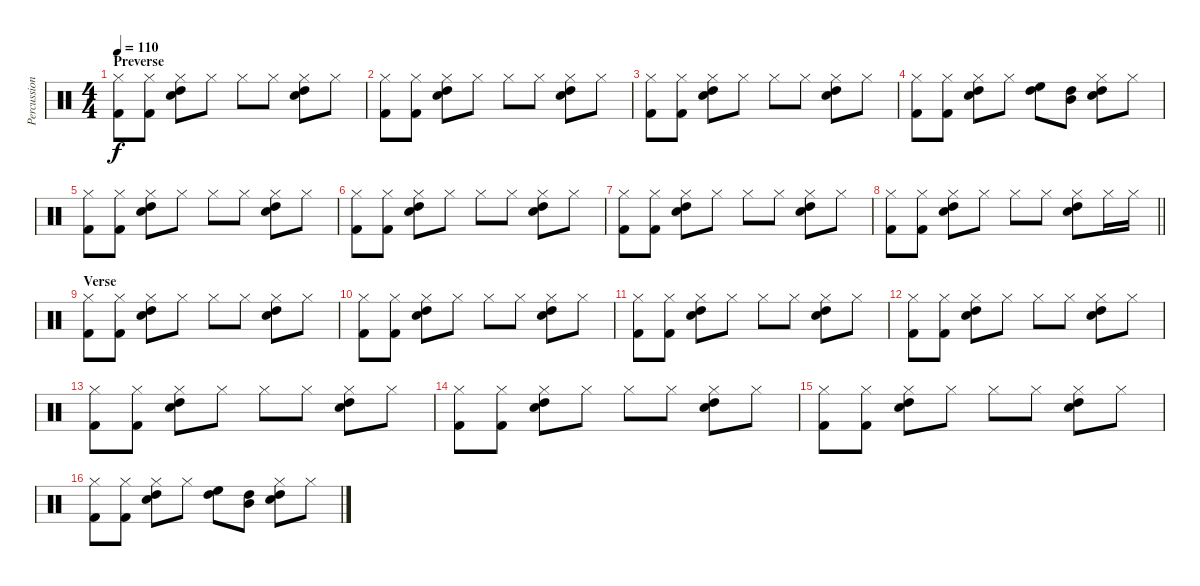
\track ("Percussion" "Percussion") {instrument percussion}
\staff {score}
\articulation defaults
\ts (4 4)
\section ("" "Preverse")
\tempo 110
\clef neutral
\ks c
("Hi-Hat (closed)" "Kick (hit) 2").8{dy f} ("Hi-Hat (closed)" "Kick (hit) 2").8 ("Hi-Hat (closed)" "High Tom (hit)" "Snare (hit) 2").8 "Hi-Hat (closed)".8 "Hi-Hat (closed)".8 "Hi-Hat (closed)".8 ("Hi-Hat (closed)" "High Tom (hit)" "Snare (hit) 2").8 "Hi-Hat (closed)".8 |
("Hi-Hat (closed)" "Kick (hit) 2").8 ("Hi-Hat (closed)" "Kick (hit) 2").8 ("Hi-Hat (closed)" "High Tom (hit)" "Snare (hit) 2").8 "Hi-Hat (closed)".8 "Hi-Hat (closed)".8 "Hi-Hat (closed)".8 ("Hi-Hat (closed)" "High Tom (hit)" "Snare (hit) 2").8 "Hi-Hat (closed)".8 |
("Hi-Hat (closed)" "Kick (hit) 2").8 ("Hi-Hat (closed)" "Kick (hit) 2").8 ("Hi-Hat (closed)" "High Tom (hit)" "Snare (hit) 2").8 "Hi-Hat (closed)".8 "Hi-Hat (closed)".8 "Hi-Hat (closed)".8 ("Hi-Hat (closed)" "High Tom (hit)" "Snare (hit) 2").8 "Hi-Hat (closed)".8 |
("Hi-Hat (closed)" "Kick (hit) 2").8 ("Hi-Hat (closed)" "Kick (hit) 2").8 ("Hi-Hat (closed)" "High Tom (hit)" "Snare (hit) 2").8 "Hi-Hat (closed)".8 ("High Floor Tom (hit)" "High Tom (hit)").8 ("High Tom (hit)" "Mid Tom (hit)").8 ("Hi-Hat (closed)" "High Tom (hit)" "Snare (hit) 2").8 "Hi-Hat (closed)".8 |
("Hi-Hat (closed)" "Kick (hit) 2").8 ("Hi-Hat (closed)" "Kick (hit) 2").8 ("Hi-Hat (closed)" "High Tom (hit)" "Snare (hit) 2").8 "Hi-Hat (closed)".8 "Hi-Hat (closed)".8 "Hi-Hat (closed)".8 ("Hi-Hat (closed)" "High Tom (hit)" "Snare (hit) 2").8 "Hi-Hat (closed)".8 |
("Hi-Hat (closed)" "Kick (hit) 2").8 ("Hi-Hat (closed)" "Kick (hit) 2").8 ("Hi-Hat (closed)" "High Tom (hit)" "Snare (hit) 2").8 "Hi-Hat (closed)".8 "Hi-Hat (closed)".8 "Hi-Hat (closed)".8 ("Hi-Hat (closed)" "High Tom (hit)" "Snare (hit) 2").8 "Hi-Hat (closed)".8 |
("Hi-Hat (closed)" "Kick (hit) 2").8 ("Hi-Hat (closed)" "Kick (hit) 2").8 ("Hi-Hat (closed)" "High Tom (hit)" "Snare (hit) 2").8 "Hi-Hat (closed)".8 "Hi-Hat (closed)".8 "Hi-Hat (closed)".8 ("Hi-Hat (closed)" "High Tom (hit)" "Snare (hit) 2").8 "Hi-Hat (closed)".8 |
\barLineRight lightlight
("Hi-Hat (closed)" "Kick (hit) 2").8 ("Hi-Hat (closed)" "Kick (hit) 2").8 ("Hi-Hat (closed)" "High Tom (hit)" "Snare (hit) 2").8 "Hi-Hat (closed)".8 "Hi-Hat (closed)".8 "Hi-Hat (closed)".8 ("Hi-Hat (closed)" "High Tom (hit)" "Snare (hit) 2").8 "Hi-Hat (closed)".16 "Hi-Hat (closed)".16 |
\section ("" "Verse")
("Hi-Hat (closed)" "Kick (hit) 2").8 ("Hi-Hat (closed)" "Kick (hit) 2").8 ("Hi-Hat (closed)" "High Tom (hit)" "Snare (hit) 2").8 "Hi-Hat (closed)".8 "Hi-Hat (closed)".8 "Hi-Hat (closed)".8 ("Hi-Hat (closed)" "High Tom (hit)" "Snare (hit) 2").8 "Hi-Hat (closed)".8 |
("Hi-Hat (closed)" "Kick (hit) 2").8 ("Hi-Hat (closed)" "Kick (hit) 2").8 ("Hi-Hat (closed)" "High Tom (hit)" "Snare (hit) 2").8 "Hi-Hat (closed)".8 "Hi-Hat (closed)".8 "Hi-Hat (closed)".8 ("Hi-Hat (closed)" "High Tom (hit)" "Snare (hit) 2").8 "Hi-Hat (closed)".8 |
("Hi-Hat (closed)" "Kick (hit) 2").8 ("Hi-Hat (closed)" "Kick (hit) 2").8 ("Hi-Hat (closed)" "High Tom (hit)" "Snare (hit) 2").8 "Hi-Hat (closed)".8 "Hi-Hat (closed)".8 "Hi-Hat (closed)".8 ("Hi-Hat (closed)" "High Tom (hit)" "Snare (hit) 2").8 "Hi-Hat (closed)".8 |
("Hi-Hat (closed)" "Kick (hit) 2").8 ("Hi-Hat (closed)" "Kick (hit) 2").8 ("Hi-Hat (closed)" "High Tom (hit)" "Snare (hit) 2").8 "Hi-Hat (closed)".8 "Hi-Hat (closed)".8 "Hi-Hat (closed)".8 ("Hi-Hat (closed)" "High Tom (hit)" "Snare (hit) 2").8 "Hi-Hat (closed)".8 |
("Hi-Hat (closed)" "Kick (hit) 2").8 ("Hi-Hat (closed)" "Kick (hit) 2").8 ("Hi-Hat (closed)" "High Tom (hit)" "Snare (hit) 2").8 "Hi-Hat (closed)".8 "Hi-Hat (closed)".8 "Hi-Hat (closed)".8 ("Hi-Hat (closed)" "High Tom (hit)" "Snare (hit) 2").8 "Hi-Hat (closed)".8 |
("Hi-Hat (closed)" "Kick (hit) 2").8 ("Hi-Hat (closed)" "Kick (hit) 2").8 ("Hi-Hat (closed)" "High Tom (hit)" "Snare (hit) 2").8 "Hi-Hat (closed)".8 "Hi-Hat (closed)".8 "Hi-Hat (closed)".8 ("Hi-Hat (closed)" "High Tom (hit)" "Snare (hit) 2").8 "Hi-Hat (closed)".8 |
("Hi-Hat (closed)" "Kick (hit) 2").8 ("Hi-Hat (closed)" "Kick (hit) 2").8 ("Hi-Hat (closed)" "High Tom (hit)" "Snare (hit) 2").8 "Hi-Hat (closed)".8 "Hi-Hat (closed)".8 "Hi-Hat (closed)".8 ("Hi-Hat (closed)" "High Tom (hit)" "Snare (hit) 2").8 "Hi-Hat (closed)".8 |
("Hi-Hat (closed)" "Kick (hit) 2").8 ("Hi-Hat (closed)" "Kick (hit) 2").8 ("Hi-Hat (closed)" "High Tom (hit)" "Snare (hit) 2").8 "Hi-Hat (closed)".8 ("High Floor Tom (hit)" "High Tom (hit)").8 ("High Tom (hit)" "Mid Tom (hit)").8 ("Hi-Hat (closed)" "High Tom (hit)" "Snare (hit) 2").8 "Hi-Hat (closed)".8
